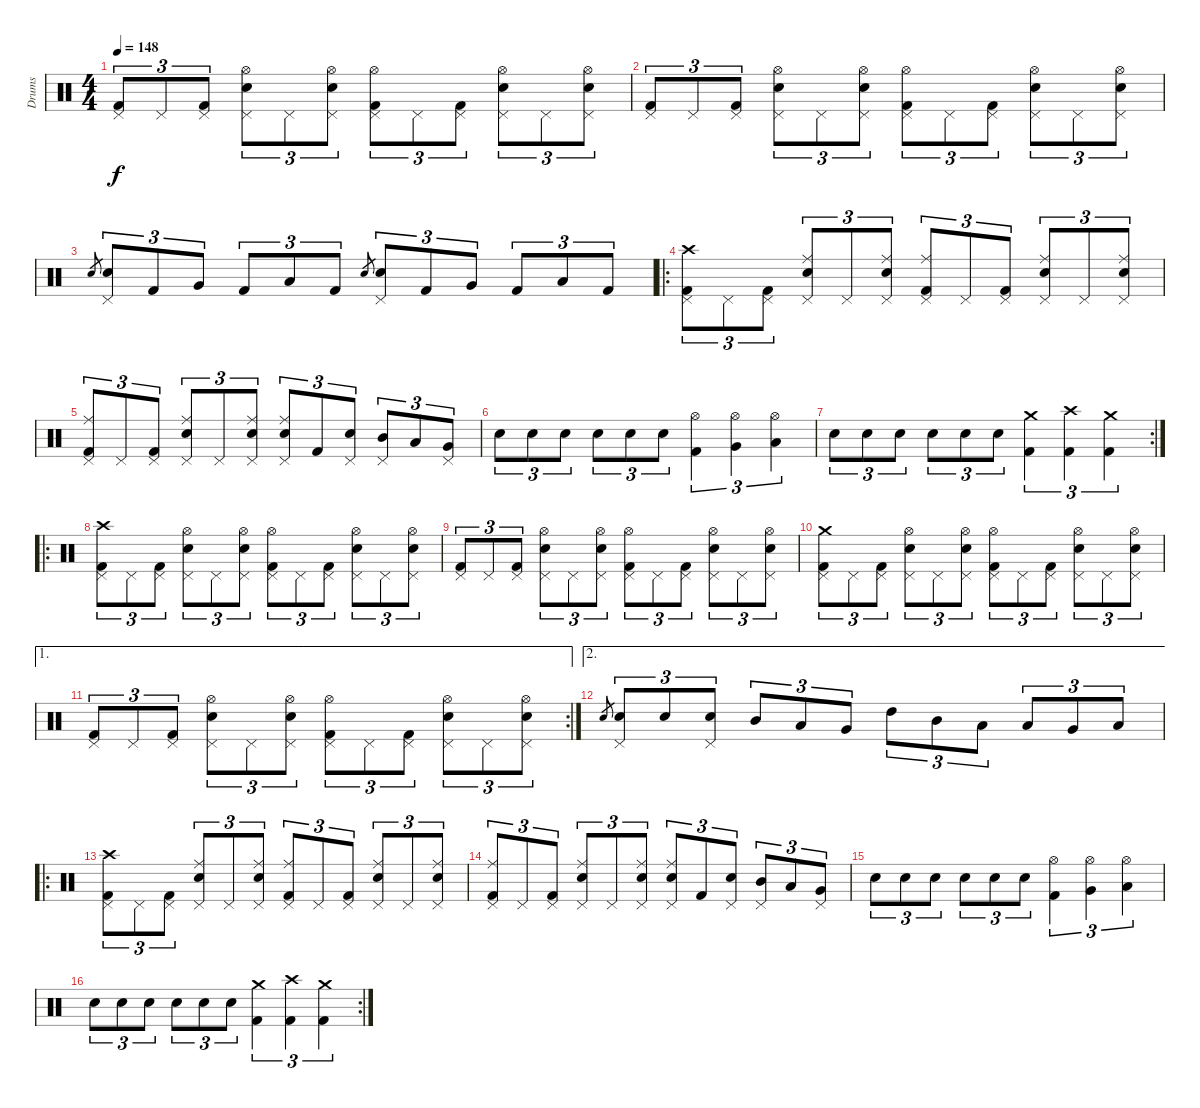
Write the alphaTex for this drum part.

\track ("Drums" "Drums") {instrument percussion}
\staff {score}
\articulation defaults
\ts (4 4)
\tempo 148
\clef neutral
\ks c
("Kick (hit) 2" "Pedal Hi-Hat (hit)").8{tu (3 2) dy f} "Pedal Hi-Hat (hit)".8{tu (3 2)} ("Kick (hit) 2" "Pedal Hi-Hat (hit)").8{tu (3 2)} ("Snare (hit) 2" "Pedal Hi-Hat (hit)" "Hi-Hat (open)").8{tu (3 2)} "Pedal Hi-Hat (hit)".8{tu (3 2)} ("Snare (hit) 2" "Pedal Hi-Hat (hit)" "Hi-Hat (open)").8{tu (3 2)} ("Kick (hit) 2" "Pedal Hi-Hat (hit)" "Hi-Hat (open)").8{tu (3 2)} "Pedal Hi-Hat (hit)".8{tu (3 2)} ("Kick (hit) 2" "Pedal Hi-Hat (hit)").8{tu (3 2)} ("Snare (hit) 2" "Pedal Hi-Hat (hit)" "Hi-Hat (open)").8{tu (3 2)} "Pedal Hi-Hat (hit)".8{tu (3 2)} ("Snare (hit) 2" "Pedal Hi-Hat (hit)" "Hi-Hat (open)").8{tu (3 2)} |
("Kick (hit) 2" "Pedal Hi-Hat (hit)").8{tu (3 2)} "Pedal Hi-Hat (hit)".8{tu (3 2)} ("Kick (hit) 2" "Pedal Hi-Hat (hit)").8{tu (3 2)} ("Snare (hit) 2" "Pedal Hi-Hat (hit)" "Hi-Hat (open)").8{tu (3 2)} "Pedal Hi-Hat (hit)".8{tu (3 2)} ("Snare (hit) 2" "Pedal Hi-Hat (hit)" "Hi-Hat (open)").8{tu (3 2)} ("Kick (hit) 2" "Pedal Hi-Hat (hit)" "Hi-Hat (open)").8{tu (3 2)} "Pedal Hi-Hat (hit)".8{tu (3 2)} ("Kick (hit) 2" "Pedal Hi-Hat (hit)").8{tu (3 2)} ("Snare (hit) 2" "Pedal Hi-Hat (hit)" "Hi-Hat (open)").8{tu (3 2)} "Pedal Hi-Hat (hit)".8{tu (3 2)} ("Snare (hit) 2" "Pedal Hi-Hat (hit)" "Hi-Hat (open)").8{tu (3 2)} |
"Snare (hit) 2".8{gr} ("Snare (hit) 2" "Pedal Hi-Hat (hit)").8{tu (3 2)} "Kick (hit) 2".8{tu (3 2)} "Very Low Tom (hit)".8{tu (3 2)} "Kick (hit) 2".8{tu (3 2)} "Low Floor Tom (hit)".8{tu (3 2)} "Kick (hit) 2".8{tu (3 2)} "Snare (hit) 2".8{gr} ("Snare (hit) 2" "Pedal Hi-Hat (hit)").8{tu (3 2)} "Kick (hit) 2".8{tu (3 2)} "Very Low Tom (hit)".8{tu (3 2)} "Kick (hit) 2".8{tu (3 2)} "Low Floor Tom (hit)".8{tu (3 2)} "Kick (hit) 2".8{tu (3 2)} |
\ro
("Kick (hit) 2" "Pedal Hi-Hat (hit)" "Crash high (hit)").8{tu (3 2)} "Pedal Hi-Hat (hit)".8{tu (3 2)} ("Kick (hit) 2" "Pedal Hi-Hat (hit)").8{tu (3 2)} ("Snare (hit) 2" "Pedal Hi-Hat (hit)" "Ride (middle)").8{tu (3 2)} "Pedal Hi-Hat (hit)".8{tu (3 2)} ("Snare (hit) 2" "Pedal Hi-Hat (hit)" "Ride (middle)").8{tu (3 2)} ("Kick (hit) 2" "Pedal Hi-Hat (hit)" "Ride (middle)").8{tu (3 2)} "Pedal Hi-Hat (hit)".8{tu (3 2)} ("Kick (hit) 2" "Pedal Hi-Hat (hit)").8{tu (3 2)} ("Snare (hit) 2" "Pedal Hi-Hat (hit)" "Ride (middle)").8{tu (3 2)} "Pedal Hi-Hat (hit)".8{tu (3 2)} ("Snare (hit) 2" "Pedal Hi-Hat (hit)" "Ride (middle)").8{tu (3 2)} |
("Kick (hit) 2" "Pedal Hi-Hat (hit)" "Ride (middle)").8{tu (3 2)} "Pedal Hi-Hat (hit)".8{tu (3 2)} ("Kick (hit) 2" "Pedal Hi-Hat (hit)").8{tu (3 2)} ("Snare (hit) 2" "Pedal Hi-Hat (hit)" "Ride (middle)").8{tu (3 2)} "Pedal Hi-Hat (hit)".8{tu (3 2)} ("Snare (hit) 2" "Pedal Hi-Hat (hit)" "Ride (middle)").8{tu (3 2)} ("Snare (hit) 2" "Pedal Hi-Hat (hit)" "Ride (middle)").8{tu (3 2)} "Kick (hit) 2".8{tu (3 2)} ("Snare (hit) 2" "Pedal Hi-Hat (hit)").8{tu (3 2)} ("Mid Tom (hit)" "Pedal Hi-Hat (hit)").8{tu (3 2)} "Low Tom (hit)".8{tu (3 2)} ("Very Low Tom (hit)" "Pedal Hi-Hat (hit)").8{tu (3 2)} |
"Snare (hit) 2".8{tu (3 2)} "Snare (hit) 2".8{tu (3 2)} "Snare (hit) 2".8{tu (3 2)} "Snare (hit) 2".8{tu (3 2)} "Snare (hit) 2".8{tu (3 2)} "Snare (hit) 2".8{tu (3 2)} ("Kick (hit) 2" "Hi-Hat (open)").4{tu (3 2)} ("Very Low Tom (hit)" "Hi-Hat (open)").4{tu (3 2)} ("Low Floor Tom (hit)" "Hi-Hat (open)").4{tu (3 2)} |
\rc 2 "Snare (hit) 2".8{tu (3 2)} "Snare (hit) 2".8{tu (3 2)} "Snare (hit) 2".8{tu (3 2)} "Snare (hit) 2".8{tu (3 2)} "Snare (hit) 2".8{tu (3 2)} "Snare (hit) 2".8{tu (3 2)}
("Kick (hit) 2" "Crash medium (hit)").4{tu (3 2)} ("Kick (hit) 2" "Crash high (hit)").4{tu (3 2)} ("Kick (hit) 2" "Crash medium (hit)").4{tu (3 2)} |
\ro
("Kick (hit) 2" "Pedal Hi-Hat (hit)" "Crash high (hit)").8{tu (3 2)} "Pedal Hi-Hat (hit)".8{tu (3 2)} ("Kick (hit) 2" "Pedal Hi-Hat (hit)").8{tu (3 2)} ("Snare (hit) 2" "Pedal Hi-Hat (hit)" "Hi-Hat (open)").8{tu (3 2)} "Pedal Hi-Hat (hit)".8{tu (3 2)} ("Snare (hit) 2" "Pedal Hi-Hat (hit)" "Hi-Hat (open)").8{tu (3 2)} ("Kick (hit) 2" "Pedal Hi-Hat (hit)" "Hi-Hat (open)").8{tu (3 2)} "Pedal Hi-Hat (hit)".8{tu (3 2)} ("Kick (hit) 2" "Pedal Hi-Hat (hit)").8{tu (3 2)} ("Snare (hit) 2" "Pedal Hi-Hat (hit)" "Hi-Hat (open)").8{tu (3 2)} "Pedal Hi-Hat (hit)".8{tu (3 2)} ("Snare (hit) 2" "Pedal Hi-Hat (hit)" "Hi-Hat (open)").8{tu (3 2)} |
("Kick (hit) 2" "Pedal Hi-Hat (hit)").8{tu (3 2)} "Pedal Hi-Hat (hit)".8{tu (3 2)} ("Kick (hit) 2" "Pedal Hi-Hat (hit)").8{tu (3 2)} ("Snare (hit) 2" "Pedal Hi-Hat (hit)" "Hi-Hat (open)").8{tu (3 2)} "Pedal Hi-Hat (hit)".8{tu (3 2)} ("Snare (hit) 2" "Pedal Hi-Hat (hit)" "Hi-Hat (open)").8{tu (3 2)} ("Kick (hit) 2" "Pedal Hi-Hat (hit)" "Hi-Hat (open)").8{tu (3 2)} "Pedal Hi-Hat (hit)".8{tu (3 2)} ("Kick (hit) 2" "Pedal Hi-Hat (hit)").8{tu (3 2)} ("Snare (hit) 2" "Pedal Hi-Hat (hit)" "Hi-Hat (open)").8{tu (3 2)} "Pedal Hi-Hat (hit)".8{tu (3 2)} ("Snare (hit) 2" "Pedal Hi-Hat (hit)" "Hi-Hat (open)").8{tu (3 2)} |
("Kick (hit) 2" "Pedal Hi-Hat (hit)" "Crash medium (hit)").8{tu (3 2)} "Pedal Hi-Hat (hit)".8{tu (3 2)} ("Kick (hit) 2" "Pedal Hi-Hat (hit)").8{tu (3 2)} ("Snare (hit) 2" "Pedal Hi-Hat (hit)" "Hi-Hat (open)").8{tu (3 2)} "Pedal Hi-Hat (hit)".8{tu (3 2)} ("Snare (hit) 2" "Pedal Hi-Hat (hit)" "Hi-Hat (open)").8{tu (3 2)} ("Kick (hit) 2" "Pedal Hi-Hat (hit)" "Hi-Hat (open)").8{tu (3 2)} "Pedal Hi-Hat (hit)".8{tu (3 2)} ("Kick (hit) 2" "Pedal Hi-Hat (hit)").8{tu (3 2)} ("Snare (hit) 2" "Pedal Hi-Hat (hit)" "Hi-Hat (open)").8{tu (3 2)} "Pedal Hi-Hat (hit)".8{tu (3 2)} ("Snare (hit) 2" "Pedal Hi-Hat (hit)" "Hi-Hat (open)").8{tu (3 2)} |
\ae 1
\rc 2
("Kick (hit) 2" "Pedal Hi-Hat (hit)").8{tu (3 2)} "Pedal Hi-Hat (hit)".8{tu (3 2)} ("Kick (hit) 2" "Pedal Hi-Hat (hit)").8{tu (3 2)} ("Snare (hit) 2" "Pedal Hi-Hat (hit)" "Hi-Hat (open)").8{tu (3 2)} "Pedal Hi-Hat (hit)".8{tu (3 2)} ("Snare (hit) 2" "Pedal Hi-Hat (hit)" "Hi-Hat (open)").8{tu (3 2)} ("Kick (hit) 2" "Pedal Hi-Hat (hit)" "Hi-Hat (open)").8{tu (3 2)} "Pedal Hi-Hat (hit)".8{tu (3 2)} ("Kick (hit) 2" "Pedal Hi-Hat (hit)").8{tu (3 2)} ("Snare (hit) 2" "Pedal Hi-Hat (hit)" "Hi-Hat (open)").8{tu (3 2)} "Pedal Hi-Hat (hit)".8{tu (3 2)} ("Snare (hit) 2" "Pedal Hi-Hat (hit)" "Hi-Hat (open)").8{tu (3 2)} |
\ae 2 "Snare (hit) 2".8{gr}
("Snare (hit) 2" "Pedal Hi-Hat (hit)").8{tu (3 2)} "Snare (hit) 2".8{tu (3 2)} ("Snare (hit) 2" "Pedal Hi-Hat (hit)").8{tu (3 2)} "Mid Tom (hit)".8{tu (3 2)} "Low Tom (hit)".8{tu (3 2)} "Very Low Tom (hit)".8{tu (3 2)} "High Tom (hit)".8{tu (3 2)} "Mid Tom (hit)".8{tu (3 2)} "Low Tom (hit)".8{tu (3 2)} "Low Tom (hit)".8{tu (3 2)} "Very Low Tom (hit)".8{tu (3 2)} "Low Floor Tom (hit)".8{tu (3 2)} |
\ro
("Kick (hit) 2" "Pedal Hi-Hat (hit)" "Crash high (hit)").8{tu (3 2)} "Pedal Hi-Hat (hit)".8{tu (3 2)} ("Kick (hit) 2" "Pedal Hi-Hat (hit)").8{tu (3 2)} ("Snare (hit) 2" "Pedal Hi-Hat (hit)" "Ride (middle)").8{tu (3 2)} "Pedal Hi-Hat (hit)".8{tu (3 2)} ("Snare (hit) 2" "Pedal Hi-Hat (hit)" "Ride (middle)").8{tu (3 2)} ("Kick (hit) 2" "Pedal Hi-Hat (hit)" "Ride (middle)").8{tu (3 2)} "Pedal Hi-Hat (hit)".8{tu (3 2)} ("Kick (hit) 2" "Pedal Hi-Hat (hit)").8{tu (3 2)} ("Snare (hit) 2" "Pedal Hi-Hat (hit)" "Ride (middle)").8{tu (3 2)} "Pedal Hi-Hat (hit)".8{tu (3 2)} ("Snare (hit) 2" "Pedal Hi-Hat (hit)" "Ride (middle)").8{tu (3 2)} |
("Kick (hit) 2" "Pedal Hi-Hat (hit)" "Ride (middle)").8{tu (3 2)} "Pedal Hi-Hat (hit)".8{tu (3 2)} ("Kick (hit) 2" "Pedal Hi-Hat (hit)").8{tu (3 2)} ("Snare (hit) 2" "Pedal Hi-Hat (hit)" "Ride (middle)").8{tu (3 2)} "Pedal Hi-Hat (hit)".8{tu (3 2)} ("Snare (hit) 2" "Pedal Hi-Hat (hit)" "Ride (middle)").8{tu (3 2)} ("Snare (hit) 2" "Pedal Hi-Hat (hit)" "Ride (middle)").8{tu (3 2)} "Kick (hit) 2".8{tu (3 2)} ("Snare (hit) 2" "Pedal Hi-Hat (hit)").8{tu (3 2)} ("Mid Tom (hit)" "Pedal Hi-Hat (hit)").8{tu (3 2)} "Low Tom (hit)".8{tu (3 2)} ("Very Low Tom (hit)" "Pedal Hi-Hat (hit)").8{tu (3 2)} |
"Snare (hit) 2".8{tu (3 2)} "Snare (hit) 2".8{tu (3 2)} "Snare (hit) 2".8{tu (3 2)} "Snare (hit) 2".8{tu (3 2)} "Snare (hit) 2".8{tu (3 2)} "Snare (hit) 2".8{tu (3 2)} ("Kick (hit) 2" "Hi-Hat (open)").4{tu (3 2)} ("Very Low Tom (hit)" "Hi-Hat (open)").4{tu (3 2)} ("Low Floor Tom (hit)" "Hi-Hat (open)").4{tu (3 2)} |
\rc 2 "Snare (hit) 2".8{tu (3 2)} "Snare (hit) 2".8{tu (3 2)} "Snare (hit) 2".8{tu (3 2)} "Snare (hit) 2".8{tu (3 2)} "Snare (hit) 2".8{tu (3 2)} "Snare (hit) 2".8{tu (3 2)}
("Kick (hit) 2" "Crash medium (hit)").4{tu (3 2)} ("Kick (hit) 2" "Crash high (hit)").4{tu (3 2)} ("Kick (hit) 2" "Crash medium (hit)").4{tu (3 2)}
